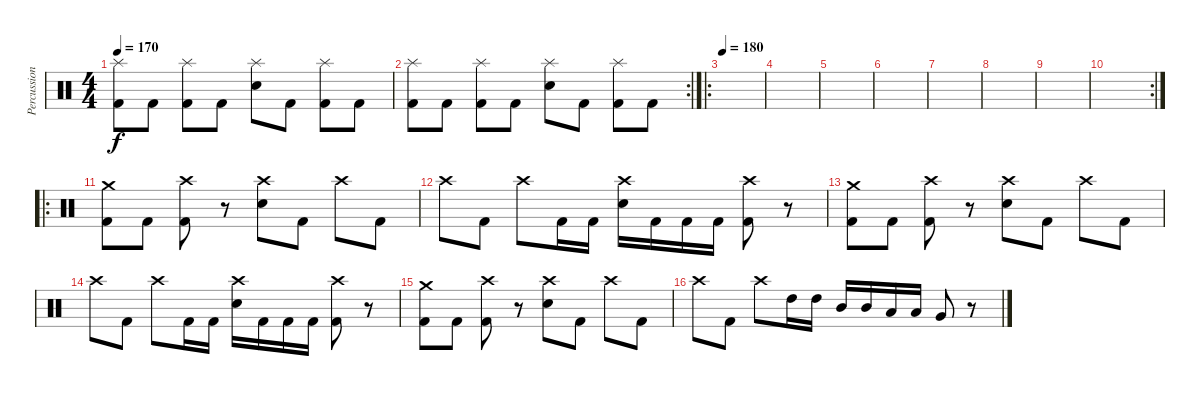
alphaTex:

\track ("Percussion" "Percussion") {instrument percussion}
\staff {score}
\articulation defaults
\ts (4 4)
\tempo 170
\clef neutral
\ks c
("Splash (hit)" "Kick (hit) 2").8{dy f} "Kick (hit) 2".8 ("Splash (hit)" "Kick (hit) 2").8 "Kick (hit) 2".8 ("Splash (hit)" "Electric Snare (hit)").8 "Kick (hit) 2".8 ("Splash (hit)" "Kick (hit) 2").8 "Kick (hit) 2".8 |
\rc 2
("Splash (hit)" "Kick (hit) 2").8 "Kick (hit) 2".8 ("Splash (hit)" "Kick (hit) 2").8 "Kick (hit) 2".8 ("Splash (hit)" "Electric Snare (hit)").8 "Kick (hit) 2".8 ("Splash (hit)" "Kick (hit) 2").8 "Kick (hit) 2".8 |
\ro
\tempo 180
|
|
|
|
|
|
|
\rc 2
|
\ro
("Crash medium (hit)" "Kick (hit) 2").8 "Kick (hit) 2".8 ("Crash high (hit)" "Kick (hit) 2").8 r.8 ("Crash high (hit)" "Electric Snare (hit)").8 "Kick (hit) 2".8 "Crash high (hit)".8 "Kick (hit) 2".8 |
"Crash high (hit)".8 "Kick (hit) 2".8 "Crash high (hit)".8 "Kick (hit) 2".16 "Kick (hit) 2".16 ("Crash high (hit)" "Electric Snare (hit)").16 "Kick (hit) 2".16 "Kick (hit) 2".16 "Kick (hit) 2".16 ("Crash high (hit)" "Kick (hit) 2").8 r.8 |
("Crash medium (hit)" "Kick (hit) 2").8 "Kick (hit) 2".8 ("Crash high (hit)" "Kick (hit) 2").8 r.8 ("Crash high (hit)" "Electric Snare (hit)").8 "Kick (hit) 2".8 "Crash high (hit)".8 "Kick (hit) 2".8 |
"Crash high (hit)".8 "Kick (hit) 2".8 "Crash high (hit)".8 "Kick (hit) 2".16 "Kick (hit) 2".16 ("Crash high (hit)" "Electric Snare (hit)").16 "Kick (hit) 2".16 "Kick (hit) 2".16 "Kick (hit) 2".16 ("Crash high (hit)" "Kick (hit) 2").8 r.8 |
("Crash medium (hit)" "Kick (hit) 2").8 "Kick (hit) 2".8 ("Crash high (hit)" "Kick (hit) 2").8 r.8 ("Crash high (hit)" "Electric Snare (hit)").8 "Kick (hit) 2".8 "Crash high (hit)".8 "Kick (hit) 2".8 |
"Crash high (hit)".8 "Kick (hit) 2".8 "Crash high (hit)".8 "High Tom (hit)".16 "High Tom (hit)".16 "Mid Tom (hit)".16 "Mid Tom (hit)".16 "Low Tom (hit)".16 "Low Tom (hit)".16 "Very Low Tom (hit)".8 r.8
